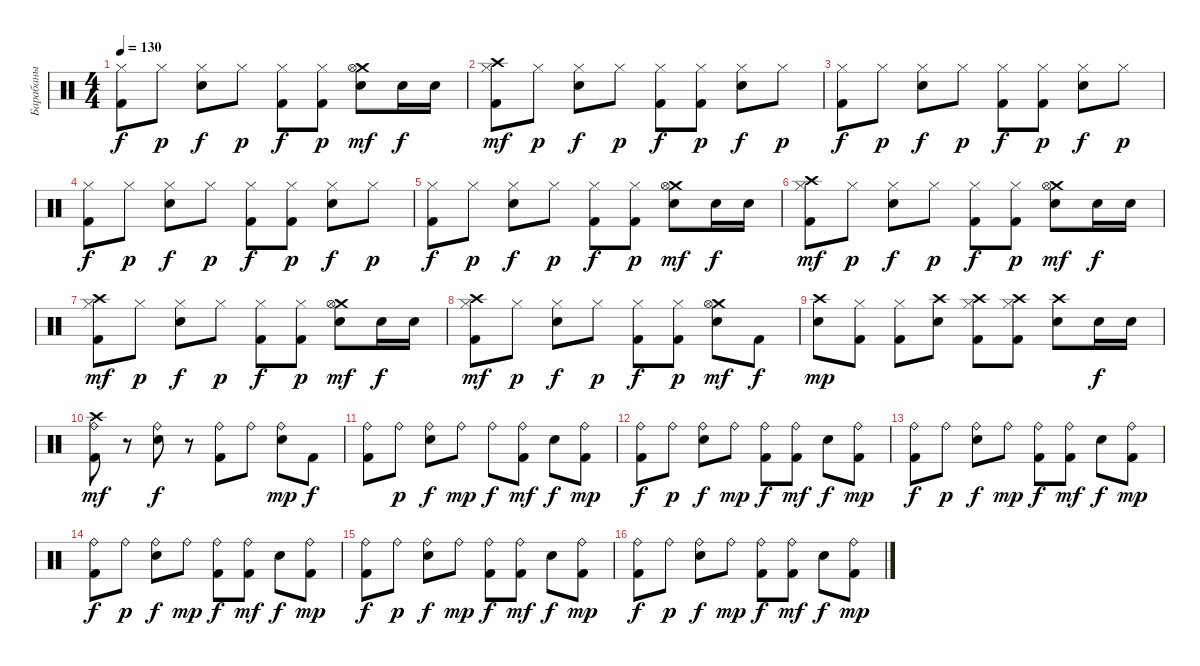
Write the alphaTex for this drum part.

\track ("Барабаны" "Барабаны") {instrument percussion}
\staff {score}
\articulation defaults
\ts (4 4)
\tempo 130
\clef neutral
\ks c
("Hi-Hat (closed)" "Kick (hit) 2").8{dy f} "Hi-Hat (closed)".8{dy p} ("Snare (hit) 2" "Hi-Hat (closed)").8{dy f} "Hi-Hat (closed)".8{dy p} ("Hi-Hat (closed)" "Kick (hit) 2").8{dy f} ("Kick (hit) 2" "Hi-Hat (closed)").8{dy p} ("Crash medium (hit)" "Snare (hit) 2" "Hi-Hat (open)").8{dy mf} "Snare (hit) 2".16{dy f} "Snare (hit) 2".16 |
("Crash high (hit)" "Hi-Hat (closed)" "Kick (hit) 2").8{dy mf} "Hi-Hat (closed)".8{dy p} ("Snare (hit) 2" "Hi-Hat (closed)").8{dy f} "Hi-Hat (closed)".8{dy p} ("Hi-Hat (closed)" "Kick (hit) 2").8{dy f} ("Kick (hit) 2" "Hi-Hat (closed)").8{dy p} ("Snare (hit) 2" "Hi-Hat (closed)").8{dy f} "Hi-Hat (closed)".8{dy p} |
("Hi-Hat (closed)" "Kick (hit) 2").8{dy f} "Hi-Hat (closed)".8{dy p} ("Snare (hit) 2" "Hi-Hat (closed)").8{dy f} "Hi-Hat (closed)".8{dy p} ("Hi-Hat (closed)" "Kick (hit) 2").8{dy f} ("Kick (hit) 2" "Hi-Hat (closed)").8{dy p} ("Snare (hit) 2" "Hi-Hat (closed)").8{dy f} "Hi-Hat (closed)".8{dy p} |
("Hi-Hat (closed)" "Kick (hit) 2").8{dy f} "Hi-Hat (closed)".8{dy p} ("Snare (hit) 2" "Hi-Hat (closed)").8{dy f} "Hi-Hat (closed)".8{dy p} ("Hi-Hat (closed)" "Kick (hit) 2").8{dy f} ("Kick (hit) 2" "Hi-Hat (closed)").8{dy p} ("Snare (hit) 2" "Hi-Hat (closed)").8{dy f} "Hi-Hat (closed)".8{dy p} |
("Hi-Hat (closed)" "Kick (hit) 2").8{dy f} "Hi-Hat (closed)".8{dy p} ("Snare (hit) 2" "Hi-Hat (closed)").8{dy f} "Hi-Hat (closed)".8{dy p} ("Hi-Hat (closed)" "Kick (hit) 2").8{dy f} ("Kick (hit) 2" "Hi-Hat (closed)").8{dy p} ("Crash medium (hit)" "Snare (hit) 2" "Hi-Hat (open)").8{dy mf} "Snare (hit) 2".16{dy f} "Snare (hit) 2".16 |
("Crash high (hit)" "Hi-Hat (closed)" "Kick (hit) 2").8{dy mf} "Hi-Hat (closed)".8{dy p} ("Snare (hit) 2" "Hi-Hat (closed)").8{dy f} "Hi-Hat (closed)".8{dy p} ("Hi-Hat (closed)" "Kick (hit) 2").8{dy f} ("Kick (hit) 2" "Hi-Hat (closed)").8{dy p} ("Crash medium (hit)" "Snare (hit) 2" "Hi-Hat (open)").8{dy mf} "Snare (hit) 2".16{dy f} "Snare (hit) 2".16 |
("Crash high (hit)" "Hi-Hat (closed)" "Kick (hit) 2").8{dy mf} "Hi-Hat (closed)".8{dy p} ("Snare (hit) 2" "Hi-Hat (closed)").8{dy f} "Hi-Hat (closed)".8{dy p} ("Hi-Hat (closed)" "Kick (hit) 2").8{dy f} ("Kick (hit) 2" "Hi-Hat (closed)").8{dy p} ("Crash medium (hit)" "Snare (hit) 2" "Hi-Hat (open)").8{dy mf} "Snare (hit) 2".16{dy f} "Snare (hit) 2".16 |
("Crash high (hit)" "Hi-Hat (closed)" "Kick (hit) 2").8{dy mf} "Hi-Hat (closed)".8{dy p} ("Snare (hit) 2" "Hi-Hat (closed)").8{dy f} "Hi-Hat (closed)".8{dy p} ("Hi-Hat (closed)" "Kick (hit) 2").8{dy f} ("Kick (hit) 2" "Hi-Hat (closed)").8{dy p} ("Crash medium (hit)" "Snare (hit) 2" "Hi-Hat (open)").8{dy mf} "Kick (hit) 2".8{dy f} |
("Crash high (hit)" "Snare (hit) 2").8{dy mp} ("Hi-Hat (closed)" "Kick (hit) 2").8 ("Hi-Hat (closed)" "Kick (hit) 2").8 ("Crash high (hit)" "Snare (hit) 2").8 ("Crash high (hit)" "Hi-Hat (closed)" "Kick (hit) 2").8 ("Crash high (hit)" "Hi-Hat (closed)" "Kick (hit) 2").8 ("Crash high (hit)" "Snare (hit) 2").8 "Snare (hit) 2".16{dy f} "Snare (hit) 2".16 |
("Ride (bell)" "Crash high (hit)" "Kick (hit) 2").8{dy mf} r.8 ("Ride (bell)" "Snare (hit) 2").8{dy f} r.8 ("Ride (bell)" "Kick (hit) 2").8 "Ride (bell)".8 ("Ride (bell)" "Snare (hit) 2").8{dy mp} "Kick (hit) 2".8{dy f} |
("Ride (bell)" "Kick (hit) 2").8 "Ride (bell)".8{dy p} ("Ride (bell)" "Snare (hit) 2").8{dy f} "Ride (bell)".8{dy mp} "Ride (bell)".8{dy f} ("Ride (bell)" "Kick (hit) 2").8{dy mf} "Snare (hit) 2".8{dy f} ("Ride (bell)" "Kick (hit) 2").8{dy mp} |
("Ride (bell)" "Kick (hit) 2").8{dy f} "Ride (bell)".8{dy p} ("Ride (bell)" "Snare (hit) 2").8{dy f} "Ride (bell)".8{dy mp} ("Ride (bell)" "Kick (hit) 2").8{dy f} ("Ride (bell)" "Kick (hit) 2").8{dy mf} "Snare (hit) 2".8{dy f} ("Ride (bell)" "Kick (hit) 2").8{dy mp} |
("Ride (bell)" "Kick (hit) 2").8{dy f} "Ride (bell)".8{dy p} ("Ride (bell)" "Snare (hit) 2").8{dy f} "Ride (bell)".8{dy mp} ("Ride (bell)" "Kick (hit) 2").8{dy f} ("Ride (bell)" "Kick (hit) 2").8{dy mf} "Snare (hit) 2".8{dy f} ("Ride (bell)" "Kick (hit) 2").8{dy mp} |
("Ride (bell)" "Kick (hit) 2").8{dy f} "Ride (bell)".8{dy p} ("Ride (bell)" "Snare (hit) 2").8{dy f} "Ride (bell)".8{dy mp} ("Ride (bell)" "Kick (hit) 2").8{dy f} ("Ride (bell)" "Kick (hit) 2").8{dy mf} "Snare (hit) 2".8{dy f} ("Ride (bell)" "Kick (hit) 2").8{dy mp} |
("Ride (bell)" "Kick (hit) 2").8{dy f} "Ride (bell)".8{dy p} ("Ride (bell)" "Snare (hit) 2").8{dy f} "Ride (bell)".8{dy mp} ("Ride (bell)" "Kick (hit) 2").8{dy f} ("Ride (bell)" "Kick (hit) 2").8{dy mf} "Snare (hit) 2".8{dy f} ("Ride (bell)" "Kick (hit) 2").8{dy mp} |
("Ride (bell)" "Kick (hit) 2").8{dy f} "Ride (bell)".8{dy p} ("Ride (bell)" "Snare (hit) 2").8{dy f} "Ride (bell)".8{dy mp} ("Ride (bell)" "Kick (hit) 2").8{dy f} ("Ride (bell)" "Kick (hit) 2").8{dy mf} "Snare (hit) 2".8{dy f} ("Ride (bell)" "Kick (hit) 2").8{dy mp}
